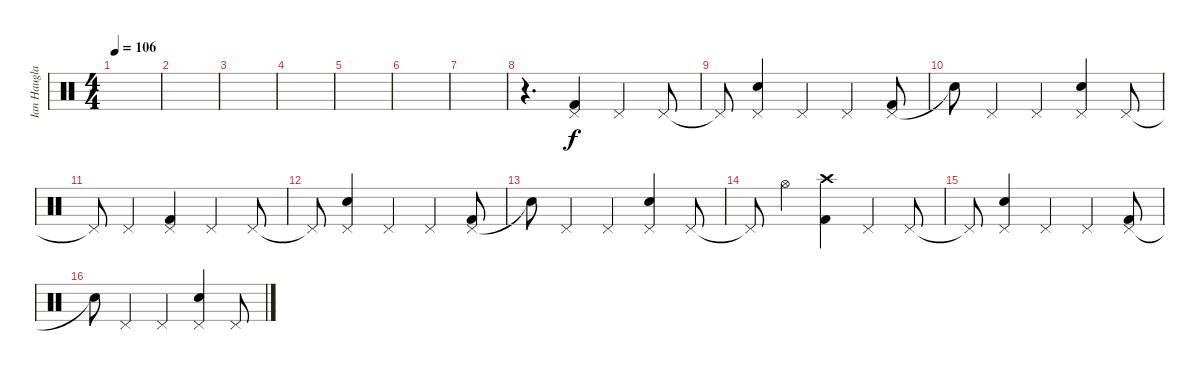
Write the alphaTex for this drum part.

\track ("Ian Haugland - Drums" "Ian Haugla") {instrument percussion}
\staff {score}
\articulation defaults
\ts (4 4)
\tempo 106
\clef neutral
\ks c
|
|
|
|
|
|
|
r.4{d} ("Pedal Hi-Hat (hit)" "Kick (hit) 2").4 "Pedal Hi-Hat (hit)".4{dy f} "Pedal Hi-Hat (hit)".8 |
"Pedal Hi-Hat (hit)"{t}.8 ("Pedal Hi-Hat (hit)" "Snare (hit) 2").4 "Pedal Hi-Hat (hit)".4 "Pedal Hi-Hat (hit)".4 ("Pedal Hi-Hat (hit)" "Kick (hit) 2").8 |
"Snare (hit)"{t}.8 "Pedal Hi-Hat (hit)".4 "Pedal Hi-Hat (hit)".4 ("Pedal Hi-Hat (hit)" "Snare (hit) 2").4 "Pedal Hi-Hat (hit)".8 |
"Pedal Hi-Hat (hit)"{t}.8 "Pedal Hi-Hat (hit)".4 ("Pedal Hi-Hat (hit)" "Kick (hit) 2").4 "Pedal Hi-Hat (hit)".4 "Pedal Hi-Hat (hit)".8 |
"Pedal Hi-Hat (hit)"{t}.8 ("Pedal Hi-Hat (hit)" "Snare (hit) 2").4 "Pedal Hi-Hat (hit)".4 "Pedal Hi-Hat (hit)".4 ("Pedal Hi-Hat (hit)" "Kick (hit) 2").8 |
"Snare (hit)"{t}.8 "Pedal Hi-Hat (hit)".4 "Pedal Hi-Hat (hit)".4 ("Pedal Hi-Hat (hit)" "Snare (hit) 2").4 "Pedal Hi-Hat (hit)".8 |
"Pedal Hi-Hat (hit)"{t}.8 "Hi-Hat (open)".4 ("Crash high (hit)" "Kick (hit) 2").4 "Pedal Hi-Hat (hit)".4 "Pedal Hi-Hat (hit)".8 |
"Pedal Hi-Hat (hit)"{t}.8 ("Pedal Hi-Hat (hit)" "Snare (hit) 2").4 "Pedal Hi-Hat (hit)".4 "Pedal Hi-Hat (hit)".4 ("Pedal Hi-Hat (hit)" "Kick (hit) 2").8 |
"Snare (hit)"{t}.8 "Pedal Hi-Hat (hit)".4 "Pedal Hi-Hat (hit)".4 ("Pedal Hi-Hat (hit)" "Snare (hit) 2").4 "Pedal Hi-Hat (hit)".8
